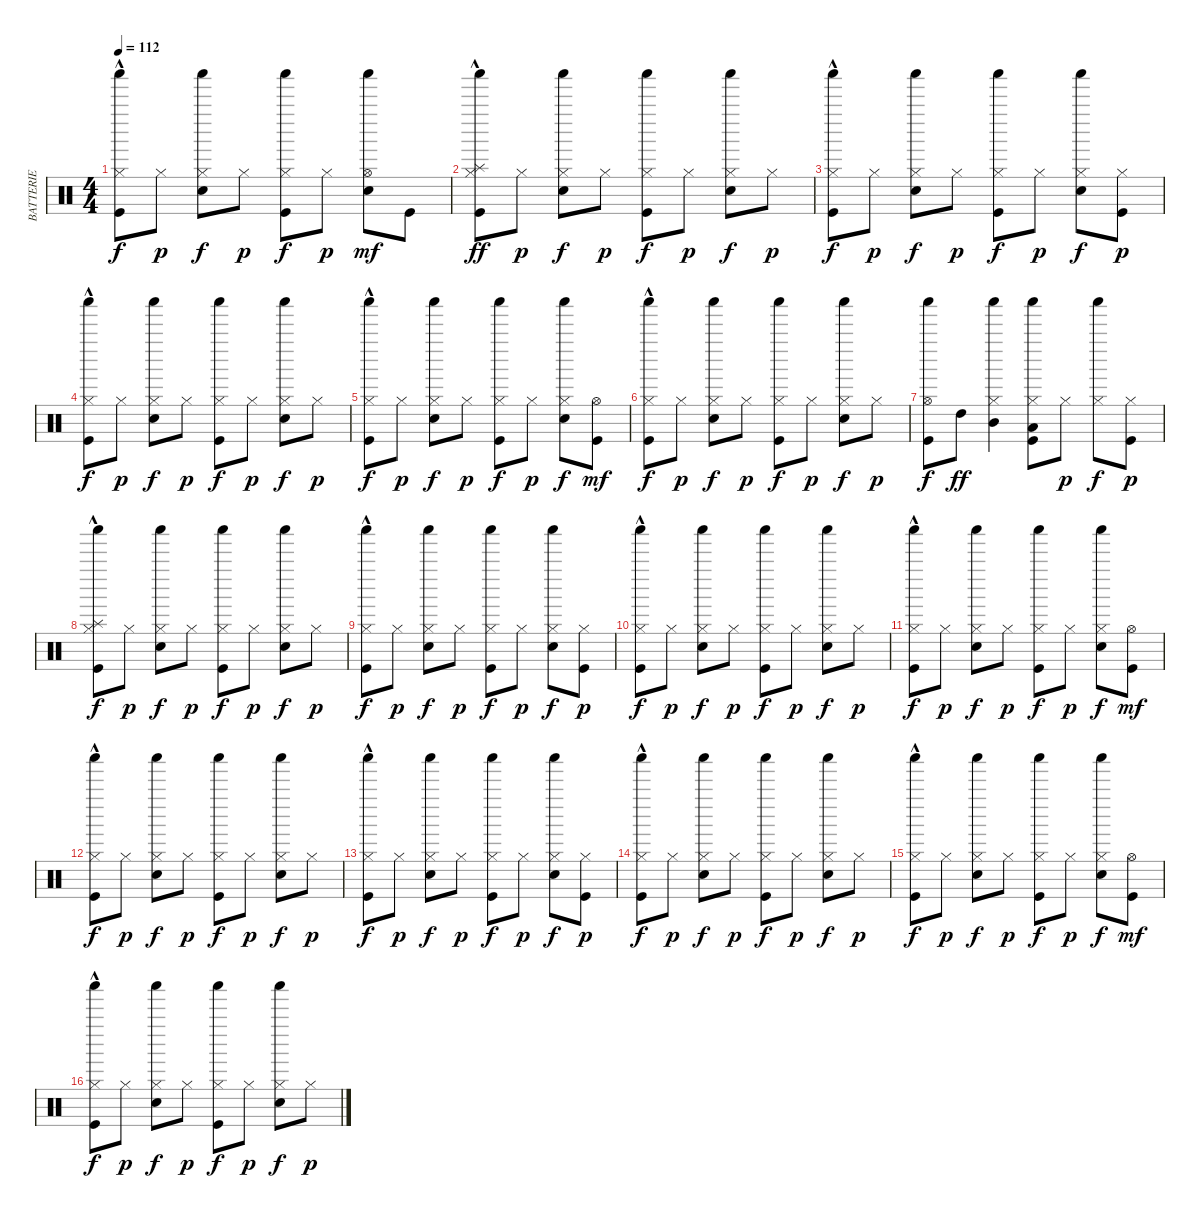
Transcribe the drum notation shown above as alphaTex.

\track ("BATTERIE" "BATTERIE") {instrument percussion}
\staff {score}
\articulation defaults
\ts (4 4)
\tempo 112
\clef neutral
\ks c
("Kick (hit)" "Hi-Hat (closed)"{hac} "Shaker (hit)").8{dy f} "Hi-Hat (closed)".8{dy p} ("Snare (hit) 2" "Hi-Hat (closed)" "Shaker (hit)").8{dy f} "Hi-Hat (closed)".8{dy p} ("Kick (hit)" "Hi-Hat (closed)" "Shaker (hit)").8{dy f} "Hi-Hat (closed)".8{dy p} ("Snare (hit) 2" "Hi-Hat (open)" "Shaker (hit)").8{dy mf} "Kick (hit)".8 |
("Kick (hit)" "Hi-Hat (closed)"{hac} "Shaker (hit)" "Splash (hit)").8{dy ff} "Hi-Hat (closed)".8{dy p} ("Snare (hit) 2" "Hi-Hat (closed)" "Shaker (hit)").8{dy f} "Hi-Hat (closed)".8{dy p} ("Kick (hit)" "Hi-Hat (closed)" "Shaker (hit)").8{dy f} "Hi-Hat (closed)".8{dy p} ("Snare (hit) 2" "Hi-Hat (closed)" "Shaker (hit)").8{dy f} "Hi-Hat (closed)".8{dy p} |
("Kick (hit)" "Hi-Hat (closed)"{hac} "Shaker (hit)").8{dy f} "Hi-Hat (closed)".8{dy p} ("Snare (hit) 2" "Hi-Hat (closed)" "Shaker (hit)").8{dy f} "Hi-Hat (closed)".8{dy p} ("Kick (hit)" "Hi-Hat (closed)" "Shaker (hit)").8{dy f} "Hi-Hat (closed)".8{dy p} ("Snare (hit) 2" "Hi-Hat (closed)" "Shaker (hit)").8{dy f} ("Kick (hit)" "Hi-Hat (closed)").8{dy p} |
("Kick (hit)" "Hi-Hat (closed)"{hac} "Shaker (hit)").8{dy f} "Hi-Hat (closed)".8{dy p} ("Snare (hit) 2" "Hi-Hat (closed)" "Shaker (hit)").8{dy f} "Hi-Hat (closed)".8{dy p} ("Kick (hit)" "Hi-Hat (closed)" "Shaker (hit)").8{dy f} "Hi-Hat (closed)".8{dy p} ("Snare (hit) 2" "Hi-Hat (closed)" "Shaker (hit)").8{dy f} "Hi-Hat (closed)".8{dy p} |
("Kick (hit)" "Hi-Hat (closed)"{hac} "Shaker (hit)").8{dy f} "Hi-Hat (closed)".8{dy p} ("Snare (hit) 2" "Hi-Hat (closed)" "Shaker (hit)").8{dy f} "Hi-Hat (closed)".8{dy p} ("Kick (hit)" "Hi-Hat (closed)" "Shaker (hit)").8{dy f} "Hi-Hat (closed)".8{dy p} ("Snare (hit) 2" "Hi-Hat (closed)" "Shaker (hit)").8{dy f} ("Kick (hit)" "Hi-Hat (open)").8{dy mf} |
("Kick (hit)" "Hi-Hat (closed)"{hac} "Shaker (hit)").8{dy f} "Hi-Hat (closed)".8{dy p} ("Snare (hit) 2" "Hi-Hat (closed)" "Shaker (hit)").8{dy f} "Hi-Hat (closed)".8{dy p} ("Kick (hit)" "Hi-Hat (closed)" "Shaker (hit)").8{dy f} "Hi-Hat (closed)".8{dy p} ("Snare (hit) 2" "Hi-Hat (closed)" "Shaker (hit)").8{dy f} "Hi-Hat (closed)".8{dy p} |
("Kick (hit)" "Hi-Hat (open)" "Shaker (hit)").8{dy f} "High Tom (hit)".8{dy ff} ("Hi-Hat (closed)" "Shaker (hit)" "Mid Tom (hit)").4 ("Kick (hit)" "Hi-Hat (closed)" "Shaker (hit)" "Low Tom (hit)").8 "Hi-Hat (closed)".8{dy p} ("Hi-Hat (closed)" "Shaker (hit)").8{dy f} ("Kick (hit)" "Hi-Hat (closed)").8{dy p} |
("Splash (hit)" "Kick (hit)" "Hi-Hat (closed)"{hac} "Shaker (hit)").8{dy f} "Hi-Hat (closed)".8{dy p} ("Snare (hit) 2" "Hi-Hat (closed)" "Shaker (hit)").8{dy f} "Hi-Hat (closed)".8{dy p} ("Kick (hit)" "Hi-Hat (closed)" "Shaker (hit)").8{dy f} "Hi-Hat (closed)".8{dy p} ("Snare (hit) 2" "Hi-Hat (closed)" "Shaker (hit)").8{dy f} "Hi-Hat (closed)".8{dy p} |
("Kick (hit)" "Hi-Hat (closed)"{hac} "Shaker (hit)").8{dy f} "Hi-Hat (closed)".8{dy p} ("Snare (hit) 2" "Hi-Hat (closed)" "Shaker (hit)").8{dy f} "Hi-Hat (closed)".8{dy p} ("Kick (hit)" "Hi-Hat (closed)" "Shaker (hit)").8{dy f} "Hi-Hat (closed)".8{dy p} ("Snare (hit) 2" "Hi-Hat (closed)" "Shaker (hit)").8{dy f} ("Kick (hit)" "Hi-Hat (closed)").8{dy p} |
("Kick (hit)" "Hi-Hat (closed)"{hac} "Shaker (hit)").8{dy f} "Hi-Hat (closed)".8{dy p} ("Snare (hit) 2" "Hi-Hat (closed)" "Shaker (hit)").8{dy f} "Hi-Hat (closed)".8{dy p} ("Kick (hit)" "Hi-Hat (closed)" "Shaker (hit)").8{dy f} "Hi-Hat (closed)".8{dy p} ("Snare (hit) 2" "Hi-Hat (closed)" "Shaker (hit)").8{dy f} "Hi-Hat (closed)".8{dy p} |
("Kick (hit)" "Hi-Hat (closed)"{hac} "Shaker (hit)").8{dy f} "Hi-Hat (closed)".8{dy p} ("Snare (hit) 2" "Hi-Hat (closed)" "Shaker (hit)").8{dy f} "Hi-Hat (closed)".8{dy p} ("Kick (hit)" "Hi-Hat (closed)" "Shaker (hit)").8{dy f} "Hi-Hat (closed)".8{dy p} ("Snare (hit) 2" "Hi-Hat (closed)" "Shaker (hit)").8{dy f} ("Kick (hit)" "Hi-Hat (open)").8{dy mf} |
("Kick (hit)" "Hi-Hat (closed)"{hac} "Shaker (hit)").8{dy f} "Hi-Hat (closed)".8{dy p} ("Snare (hit) 2" "Hi-Hat (closed)" "Shaker (hit)").8{dy f} "Hi-Hat (closed)".8{dy p} ("Kick (hit)" "Hi-Hat (closed)" "Shaker (hit)").8{dy f} "Hi-Hat (closed)".8{dy p} ("Snare (hit) 2" "Hi-Hat (closed)" "Shaker (hit)").8{dy f} "Hi-Hat (closed)".8{dy p} |
("Kick (hit)" "Hi-Hat (closed)"{hac} "Shaker (hit)").8{dy f} "Hi-Hat (closed)".8{dy p} ("Snare (hit) 2" "Hi-Hat (closed)" "Shaker (hit)").8{dy f} "Hi-Hat (closed)".8{dy p} ("Kick (hit)" "Hi-Hat (closed)" "Shaker (hit)").8{dy f} "Hi-Hat (closed)".8{dy p} ("Snare (hit) 2" "Hi-Hat (closed)" "Shaker (hit)").8{dy f} ("Kick (hit)" "Hi-Hat (closed)").8{dy p} |
("Kick (hit)" "Hi-Hat (closed)"{hac} "Shaker (hit)").8{dy f} "Hi-Hat (closed)".8{dy p} ("Snare (hit) 2" "Hi-Hat (closed)" "Shaker (hit)").8{dy f} "Hi-Hat (closed)".8{dy p} ("Kick (hit)" "Hi-Hat (closed)" "Shaker (hit)").8{dy f} "Hi-Hat (closed)".8{dy p} ("Snare (hit) 2" "Hi-Hat (closed)" "Shaker (hit)").8{dy f} "Hi-Hat (closed)".8{dy p} |
("Kick (hit)" "Hi-Hat (closed)"{hac} "Shaker (hit)").8{dy f} "Hi-Hat (closed)".8{dy p} ("Snare (hit) 2" "Hi-Hat (closed)" "Shaker (hit)").8{dy f} "Hi-Hat (closed)".8{dy p} ("Kick (hit)" "Hi-Hat (closed)" "Shaker (hit)").8{dy f} "Hi-Hat (closed)".8{dy p} ("Snare (hit) 2" "Hi-Hat (closed)" "Shaker (hit)").8{dy f} ("Kick (hit)" "Hi-Hat (open)").8{dy mf} |
("Kick (hit)" "Hi-Hat (closed)"{hac} "Shaker (hit)").8{dy f} "Hi-Hat (closed)".8{dy p} ("Snare (hit) 2" "Hi-Hat (closed)" "Shaker (hit)").8{dy f} "Hi-Hat (closed)".8{dy p} ("Kick (hit)" "Hi-Hat (closed)" "Shaker (hit)").8{dy f} "Hi-Hat (closed)".8{dy p} ("Snare (hit) 2" "Hi-Hat (closed)" "Shaker (hit)").8{dy f} "Hi-Hat (closed)".8{dy p}
